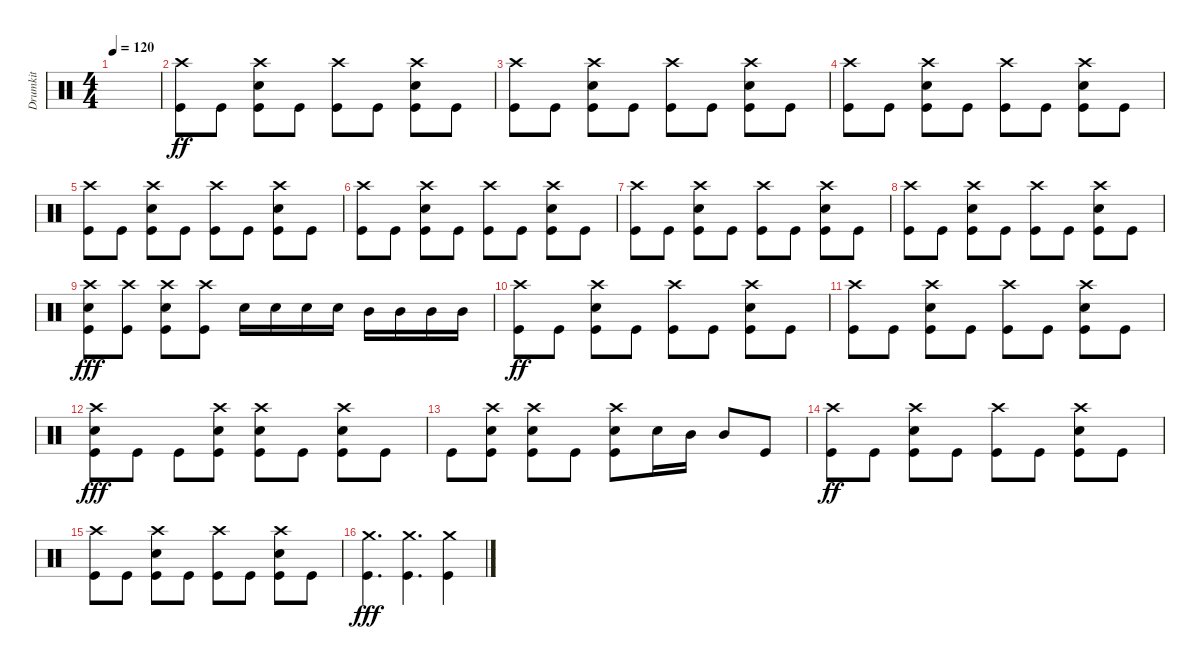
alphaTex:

\track ("Drumkit" "Drumkit") {instrument percussion}
\staff {score}
\articulation defaults
\ts (4 4)
\tempo 120
\clef neutral
\ks c
|
("Crash high (hit)" "Kick (hit)").8{dy ff} "Kick (hit)".8 ("Snare (hit) 2" "Kick (hit)" "Crash high (hit)").8 "Kick (hit)".8 ("Crash high (hit)" "Kick (hit)").8 "Kick (hit)".8 ("Snare (hit) 2" "Kick (hit)" "Crash high (hit)").8 "Kick (hit)".8 |
("Crash high (hit)" "Kick (hit)").8 "Kick (hit)".8 ("Snare (hit) 2" "Kick (hit)" "Crash high (hit)").8 "Kick (hit)".8 ("Crash high (hit)" "Kick (hit)").8 "Kick (hit)".8 ("Snare (hit) 2" "Kick (hit)" "Crash high (hit)").8 "Kick (hit)".8 |
("Crash high (hit)" "Kick (hit)").8 "Kick (hit)".8 ("Snare (hit) 2" "Kick (hit)" "Crash high (hit)").8 "Kick (hit)".8 ("Crash high (hit)" "Kick (hit)").8 "Kick (hit)".8 ("Snare (hit) 2" "Kick (hit)" "Crash high (hit)").8 "Kick (hit)".8 |
("Crash high (hit)" "Kick (hit)").8 "Kick (hit)".8 ("Snare (hit) 2" "Kick (hit)" "Crash high (hit)").8 "Kick (hit)".8 ("Crash high (hit)" "Kick (hit)").8 "Kick (hit)".8 ("Snare (hit) 2" "Kick (hit)" "Crash high (hit)").8 "Kick (hit)".8 |
("Crash high (hit)" "Kick (hit)").8 "Kick (hit)".8 ("Snare (hit) 2" "Kick (hit)" "Crash high (hit)").8 "Kick (hit)".8 ("Crash high (hit)" "Kick (hit)").8 "Kick (hit)".8 ("Snare (hit) 2" "Kick (hit)" "Crash high (hit)").8 "Kick (hit)".8 |
("Crash high (hit)" "Kick (hit)").8 "Kick (hit)".8 ("Snare (hit) 2" "Kick (hit)" "Crash high (hit)").8 "Kick (hit)".8 ("Crash high (hit)" "Kick (hit)").8 "Kick (hit)".8 ("Snare (hit) 2" "Kick (hit)" "Crash high (hit)").8 "Kick (hit)".8 |
("Crash high (hit)" "Kick (hit)").8 "Kick (hit)".8 ("Snare (hit) 2" "Kick (hit)" "Crash high (hit)").8 "Kick (hit)".8 ("Crash high (hit)" "Kick (hit)").8 "Kick (hit)".8 ("Snare (hit) 2" "Kick (hit)" "Crash high (hit)").8 "Kick (hit)".8 |
("Snare (hit) 2" "Kick (hit)" "Crash high (hit)").8{dy fff} ("Crash high (hit)" "Kick (hit)").8 ("Snare (hit) 2" "Kick (hit)" "Crash high (hit)").8 ("Crash high (hit)" "Kick (hit)").8 "Snare (hit) 2".16 "Snare (hit) 2".16 "Snare (hit) 2".16 "Snare (hit) 2".16 "Mid Tom (hit)".16 "Mid Tom (hit)".16 "Mid Tom (hit)".16 "Mid Tom (hit)".16 |
("Crash high (hit)" "Kick (hit)").8{dy ff} "Kick (hit)".8 ("Snare (hit) 2" "Kick (hit)" "Crash high (hit)").8 "Kick (hit)".8 ("Crash high (hit)" "Kick (hit)").8 "Kick (hit)".8 ("Snare (hit) 2" "Kick (hit)" "Crash high (hit)").8 "Kick (hit)".8 |
("Crash high (hit)" "Kick (hit)").8 "Kick (hit)".8 ("Snare (hit) 2" "Kick (hit)" "Crash high (hit)").8 "Kick (hit)".8 ("Crash high (hit)" "Kick (hit)").8 "Kick (hit)".8 ("Snare (hit) 2" "Kick (hit)" "Crash high (hit)").8 "Kick (hit)".8 |
("Kick (hit)" "Crash high (hit)" "Snare (hit) 2").8{dy fff} "Kick (hit)".8 "Kick (hit)".8 ("Kick (hit)" "Crash high (hit)" "Snare (hit) 2").8 ("Kick (hit)" "Crash high (hit)" "Snare (hit) 2").8 "Kick (hit)".8 ("Kick (hit)" "Crash high (hit)" "Snare (hit) 2").8 "Kick (hit)".8 |
"Kick (hit)".8 ("Kick (hit)" "Crash high (hit)" "Snare (hit) 2").8 ("Kick (hit)" "Crash high (hit)" "Snare (hit) 2").8 "Kick (hit)".8 ("Kick (hit)" "Crash high (hit)" "Snare (hit) 2").8 "Snare (hit) 2".16 "Mid Tom (hit)".16 "Mid Tom (hit)".8 "Kick (hit)".8 |
("Crash high (hit)" "Kick (hit)").8{dy ff} "Kick (hit)".8 ("Snare (hit) 2" "Kick (hit)" "Crash high (hit)").8 "Kick (hit)".8 ("Crash high (hit)" "Kick (hit)").8 "Kick (hit)".8 ("Snare (hit) 2" "Kick (hit)" "Crash high (hit)").8 "Kick (hit)".8 |
("Crash high (hit)" "Kick (hit)").8 "Kick (hit)".8 ("Snare (hit) 2" "Kick (hit)" "Crash high (hit)").8 "Kick (hit)".8 ("Crash high (hit)" "Kick (hit)").8 "Kick (hit)".8 ("Snare (hit) 2" "Kick (hit)" "Crash high (hit)").8 "Kick (hit)".8 |
("Kick (hit)" "Crash medium (hit)").4{d dy fff} ("Kick (hit)" "Crash medium (hit)").4{d} ("Kick (hit)" "Crash medium (hit)").4
